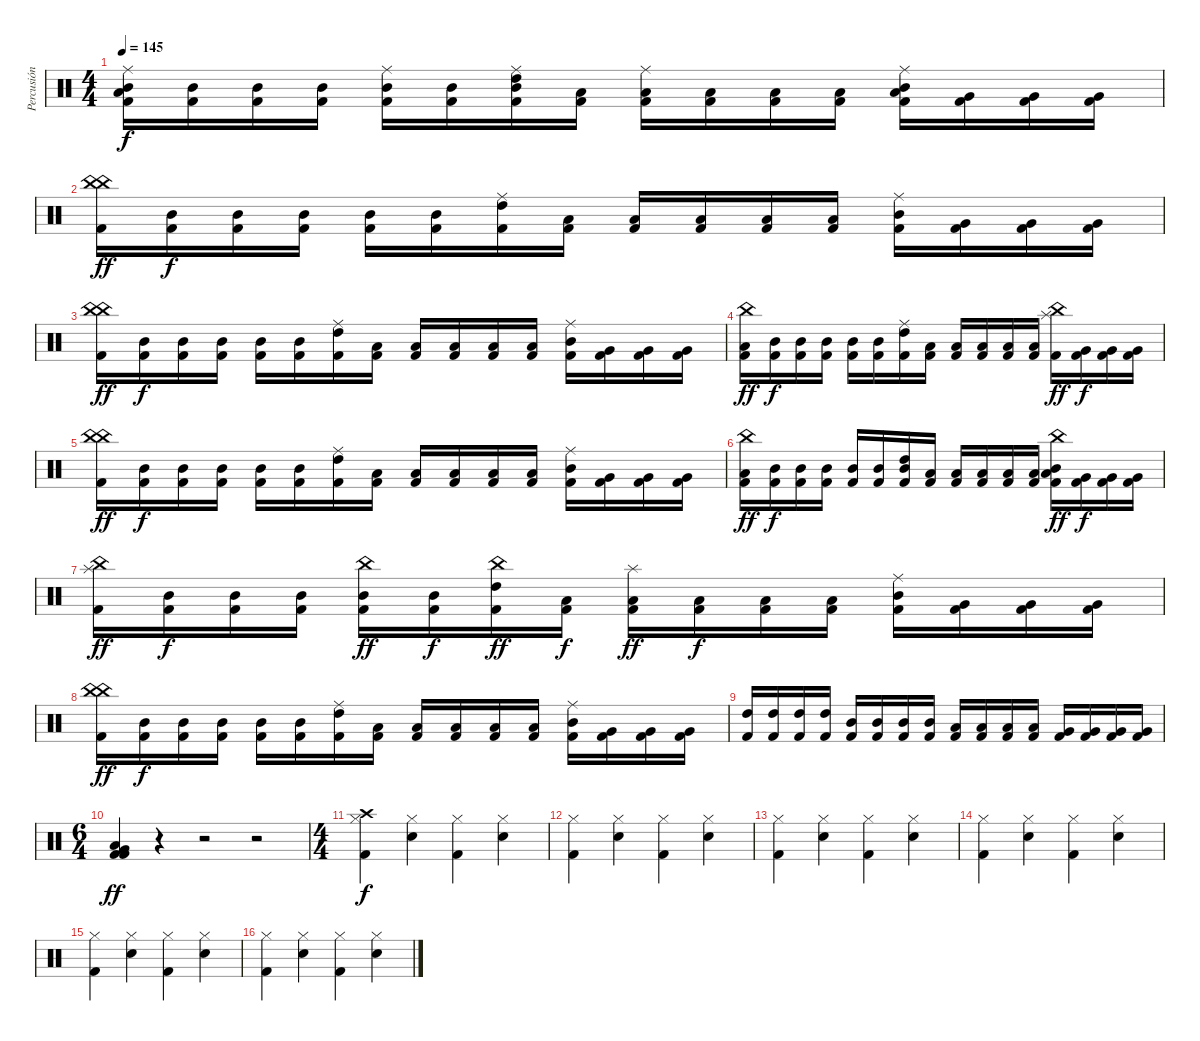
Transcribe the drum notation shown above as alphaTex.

\track ("Percusión" "Percusión") {instrument percussion}
\staff {score}
\articulation defaults
\ts (4 4)
\tempo 145
\clef neutral
\ks c
("Ride (middle)" "Mid Tom (hit)" "Low Tom (hit)" "Kick (hit) 2").16{dy f} ("Mid Tom (hit)" "Kick (hit) 2").16 ("Mid Tom (hit)" "Kick (hit) 2").16 ("Mid Tom (hit)" "Kick (hit) 2").16 ("Ride (middle)" "Mid Tom (hit)" "Kick (hit) 2").16 ("Mid Tom (hit)" "Kick (hit) 2").16 ("Ride (middle)" "High Tom (hit)" "Mid Tom (hit)" "Kick (hit) 2").16 ("Low Tom (hit)" "Kick (hit) 2").16 ("Ride (middle)" "Low Tom (hit)" "Kick (hit) 2").16 ("Low Tom (hit)" "Kick (hit) 2").16 ("Low Tom (hit)" "Kick (hit) 2").16 ("Low Tom (hit)" "Kick (hit) 2").16 ("Ride (middle)" "Mid Tom (hit)" "Low Tom (hit)" "Kick (hit) 2").16 ("Very Low Tom (hit)" "Kick (hit) 2").16 ("Very Low Tom (hit)" "Kick (hit) 2").16 ("Very Low Tom (hit)" "Kick (hit) 2").16 |
("China (hit)" "China (hit)" "Kick (hit) 2").16{dy ff} ("Mid Tom (hit)" "Kick (hit) 2").16{dy f} ("Mid Tom (hit)" "Kick (hit) 2").16 ("Mid Tom (hit)" "Kick (hit) 2").16 ("Mid Tom (hit)" "Kick (hit) 2").16 ("Mid Tom (hit)" "Kick (hit) 2").16 ("Ride (middle)" "High Tom (hit)" "Kick (hit) 2").16 ("Low Tom (hit)" "Kick (hit) 2").16 ("Low Tom (hit)" "Kick (hit) 2").16 ("Low Tom (hit)" "Kick (hit) 2").16 ("Low Tom (hit)" "Kick (hit) 2").16 ("Low Tom (hit)" "Kick (hit) 2").16 ("Ride (middle)" "Mid Tom (hit)" "Kick (hit) 2").16 ("Very Low Tom (hit)" "Kick (hit) 2").16 ("Very Low Tom (hit)" "Kick (hit) 2").16 ("Very Low Tom (hit)" "Kick (hit) 2").16 |
("China (hit)" "China (hit)" "Kick (hit) 2").16{dy ff} ("Mid Tom (hit)" "Kick (hit) 2").16{dy f} ("Mid Tom (hit)" "Kick (hit) 2").16 ("Mid Tom (hit)" "Kick (hit) 2").16 ("Mid Tom (hit)" "Kick (hit) 2").16 ("Mid Tom (hit)" "Kick (hit) 2").16 ("Ride (middle)" "High Tom (hit)" "Kick (hit) 2").16 ("Low Tom (hit)" "Kick (hit) 2").16 ("Low Tom (hit)" "Kick (hit) 2").16 ("Low Tom (hit)" "Kick (hit) 2").16 ("Low Tom (hit)" "Kick (hit) 2").16 ("Low Tom (hit)" "Kick (hit) 2").16 ("Ride (middle)" "Mid Tom (hit)" "Kick (hit) 2").16 ("Very Low Tom (hit)" "Kick (hit) 2").16 ("Very Low Tom (hit)" "Kick (hit) 2").16 ("Very Low Tom (hit)" "Kick (hit) 2").16 |
("China (hit)" "Low Tom (hit)" "Kick (hit) 2").16{dy ff} ("Mid Tom (hit)" "Kick (hit) 2").16{dy f} ("Mid Tom (hit)" "Kick (hit) 2").16 ("Mid Tom (hit)" "Kick (hit) 2").16 ("Mid Tom (hit)" "Kick (hit) 2").16 ("Mid Tom (hit)" "Kick (hit) 2").16 ("Ride (middle)" "High Tom (hit)" "Kick (hit) 2").16 ("Low Tom (hit)" "Kick (hit) 2").16 ("Low Tom (hit)" "Kick (hit) 2").16 ("Low Tom (hit)" "Kick (hit) 2").16 ("Low Tom (hit)" "Kick (hit) 2").16 ("Low Tom (hit)" "Kick (hit) 2").16 ("China (hit)" "Splash (hit)" "Kick (hit) 2").16{dy ff} ("Very Low Tom (hit)" "Kick (hit) 2").16{dy f} ("Very Low Tom (hit)" "Kick (hit) 2").16 ("Very Low Tom (hit)" "Kick (hit) 2").16 |
("China (hit)" "China (hit)" "Kick (hit) 2").16{dy ff} ("Mid Tom (hit)" "Kick (hit) 2").16{dy f} ("Mid Tom (hit)" "Kick (hit) 2").16 ("Mid Tom (hit)" "Kick (hit) 2").16 ("Mid Tom (hit)" "Kick (hit) 2").16 ("Mid Tom (hit)" "Kick (hit) 2").16 ("Ride (middle)" "High Tom (hit)" "Kick (hit) 2").16 ("Low Tom (hit)" "Kick (hit) 2").16 ("Low Tom (hit)" "Kick (hit) 2").16 ("Low Tom (hit)" "Kick (hit) 2").16 ("Low Tom (hit)" "Kick (hit) 2").16 ("Low Tom (hit)" "Kick (hit) 2").16 ("Ride (middle)" "Mid Tom (hit)" "Kick (hit) 2").16 ("Very Low Tom (hit)" "Kick (hit) 2").16 ("Very Low Tom (hit)" "Kick (hit) 2").16 ("Very Low Tom (hit)" "Kick (hit) 2").16 |
("China (hit)" "Low Tom (hit)" "Kick (hit) 2").16{dy ff} ("Mid Tom (hit)" "Kick (hit) 2").16{dy f} ("Mid Tom (hit)" "Kick (hit) 2").16 ("Mid Tom (hit)" "Kick (hit) 2").16 ("Mid Tom (hit)" "Kick (hit) 2").16 ("Mid Tom (hit)" "Kick (hit) 2").16 ("High Tom (hit)" "Mid Tom (hit)" "Kick (hit) 2").16 ("Low Tom (hit)" "Kick (hit) 2").16 ("Low Tom (hit)" "Kick (hit) 2").16 ("Low Tom (hit)" "Kick (hit) 2").16 ("Low Tom (hit)" "Kick (hit) 2").16 ("Low Tom (hit)" "Kick (hit) 2").16 ("China (hit)" "Mid Tom (hit)" "Low Tom (hit)" "Kick (hit) 2").16{dy ff} ("Very Low Tom (hit)" "Kick (hit) 2").16{dy f} ("Very Low Tom (hit)" "Kick (hit) 2").16 ("Very Low Tom (hit)" "Kick (hit) 2").16 |
("China (hit)" "Splash (hit)" "Kick (hit) 2").16{dy ff} ("Mid Tom (hit)" "Kick (hit) 2").16{dy f} ("Mid Tom (hit)" "Kick (hit) 2").16 ("Mid Tom (hit)" "Kick (hit) 2").16 ("China (hit)" "Mid Tom (hit)" "Kick (hit) 2").16{dy ff} ("Mid Tom (hit)" "Kick (hit) 2").16{dy f} ("China (hit)" "High Tom (hit)" "Kick (hit) 2").16{dy ff} ("Low Tom (hit)" "Kick (hit) 2").16{dy f} ("Splash (hit)" "Low Tom (hit)" "Kick (hit) 2").16{dy ff} ("Low Tom (hit)" "Kick (hit) 2").16{dy f} ("Low Tom (hit)" "Kick (hit) 2").16 ("Low Tom (hit)" "Kick (hit) 2").16 ("Ride (middle)" "Mid Tom (hit)" "Kick (hit) 2").16 ("Very Low Tom (hit)" "Kick (hit) 2").16 ("Very Low Tom (hit)" "Kick (hit) 2").16 ("Very Low Tom (hit)" "Kick (hit) 2").16 |
("China (hit)" "China (hit)" "Kick (hit) 2").16{dy ff} ("Mid Tom (hit)" "Kick (hit) 2").16{dy f} ("Mid Tom (hit)" "Kick (hit) 2").16 ("Mid Tom (hit)" "Kick (hit) 2").16 ("Mid Tom (hit)" "Kick (hit) 2").16 ("Mid Tom (hit)" "Kick (hit) 2").16 ("Ride (middle)" "High Tom (hit)" "Kick (hit) 2").16 ("Low Tom (hit)" "Kick (hit) 2").16 ("Low Tom (hit)" "Kick (hit) 2").16 ("Low Tom (hit)" "Kick (hit) 2").16 ("Low Tom (hit)" "Kick (hit) 2").16 ("Low Tom (hit)" "Kick (hit) 2").16 ("Ride (middle)" "Mid Tom (hit)" "Kick (hit) 2").16 ("Very Low Tom (hit)" "Kick (hit) 2").16 ("Very Low Tom (hit)" "Kick (hit) 2").16 ("Very Low Tom (hit)" "Kick (hit) 2").16 |
("High Tom (hit)" "Kick (hit) 2").16 ("High Tom (hit)" "Kick (hit) 2").16 ("High Tom (hit)" "Kick (hit) 2").16 ("High Tom (hit)" "Kick (hit) 2").16 ("Mid Tom (hit)" "Kick (hit) 2").16 ("Mid Tom (hit)" "Kick (hit) 2").16 ("Mid Tom (hit)" "Kick (hit) 2").16 ("Mid Tom (hit)" "Kick (hit) 2").16 ("Low Tom (hit)" "Kick (hit) 2").16 ("Low Tom (hit)" "Kick (hit) 2").16 ("Low Tom (hit)" "Kick (hit) 2").16 ("Low Tom (hit)" "Kick (hit) 2").16 ("Very Low Tom (hit)" "Kick (hit) 2").16 ("Very Low Tom (hit)" "Kick (hit) 2").16 ("Very Low Tom (hit)" "Kick (hit) 2").16 ("Very Low Tom (hit)" "Kick (hit) 2").16 |
\ts (6 4)
("Low Tom (hit)" "Very Low Tom (hit)" "Kick (hit) 2" "Kick (hit) 2").4{dy ff} r.4 r.2 r.2 |
\ts (4 4)
("Crash high (hit)" "Hi-Hat (closed)" "Kick (hit) 2").4{dy f} ("Hi-Hat (closed)" "Snare (hit) 2").4 ("Hi-Hat (closed)" "Kick (hit) 2").4 ("Hi-Hat (closed)" "Snare (hit) 2").4 |
("Hi-Hat (closed)" "Kick (hit) 2").4 ("Hi-Hat (closed)" "Snare (hit) 2").4 ("Hi-Hat (closed)" "Kick (hit) 2").4 ("Hi-Hat (closed)" "Snare (hit) 2").4 |
("Hi-Hat (closed)" "Kick (hit) 2").4 ("Hi-Hat (closed)" "Snare (hit) 2").4 ("Hi-Hat (closed)" "Kick (hit) 2").4 ("Hi-Hat (closed)" "Snare (hit) 2").4 |
("Hi-Hat (closed)" "Kick (hit) 2").4 ("Hi-Hat (closed)" "Snare (hit) 2").4 ("Hi-Hat (closed)" "Kick (hit) 2").4 ("Hi-Hat (closed)" "Snare (hit) 2").4 |
("Hi-Hat (closed)" "Kick (hit) 2").4 ("Hi-Hat (closed)" "Snare (hit) 2").4 ("Hi-Hat (closed)" "Kick (hit) 2").4 ("Hi-Hat (closed)" "Snare (hit) 2").4 |
("Hi-Hat (closed)" "Kick (hit) 2").4 ("Hi-Hat (closed)" "Snare (hit) 2").4 ("Hi-Hat (closed)" "Kick (hit) 2").4 ("Hi-Hat (closed)" "Snare (hit) 2").4
